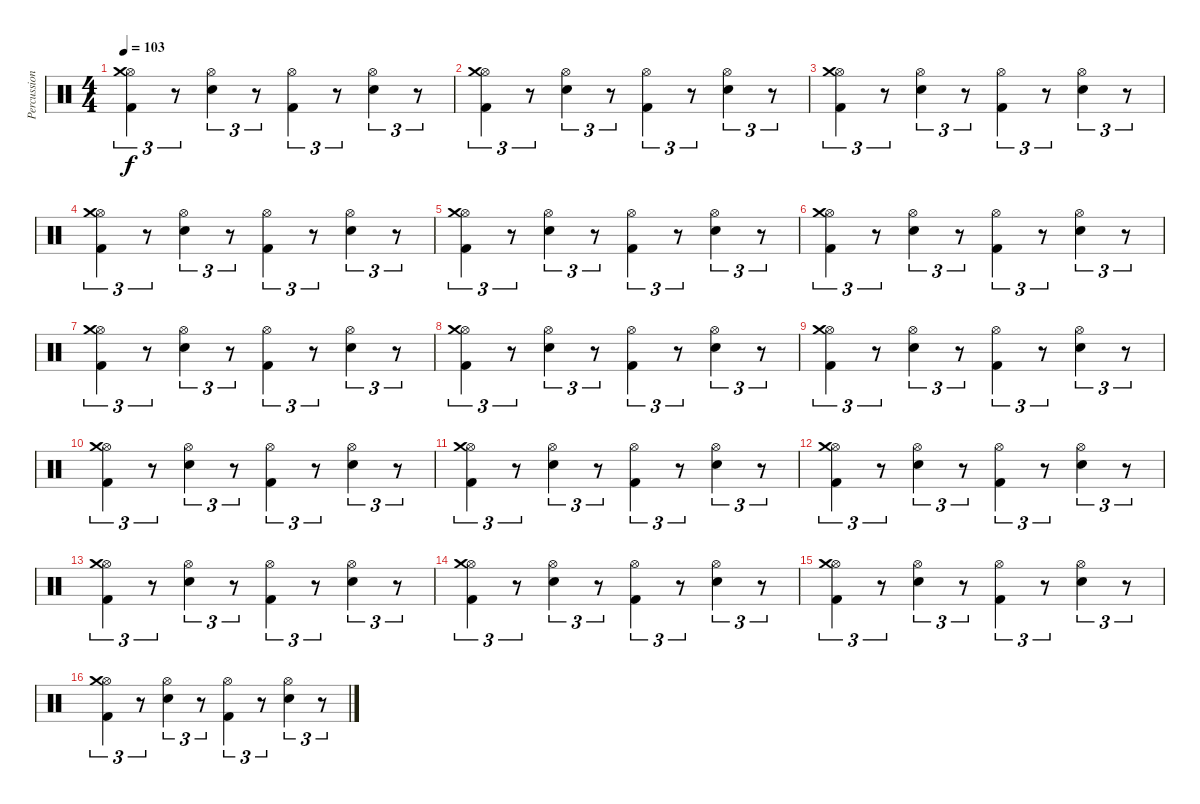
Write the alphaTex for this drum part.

\track ("Percussion" "Percussion") {instrument percussion}
\staff {score}
\articulation defaults
\ts (4 4)
\tempo 103
\clef neutral
\ks c
("Kick (hit) 2" "Hi-Hat (open)" "Crash medium (hit)").4{tu (3 2) dy f} r.8{tu (3 2)} ("Electric Snare (hit)" "Hi-Hat (open)").4{tu (3 2)} r.8{tu (3 2)} ("Kick (hit) 2" "Hi-Hat (open)").4{tu (3 2)} r.8{tu (3 2)} ("Electric Snare (hit)" "Hi-Hat (open)").4{tu (3 2)} r.8{tu (3 2)} |
("Kick (hit) 2" "Hi-Hat (open)" "Crash medium (hit)").4{tu (3 2)} r.8{tu (3 2)} ("Electric Snare (hit)" "Hi-Hat (open)").4{tu (3 2)} r.8{tu (3 2)} ("Kick (hit) 2" "Hi-Hat (open)").4{tu (3 2)} r.8{tu (3 2)} ("Electric Snare (hit)" "Hi-Hat (open)").4{tu (3 2)} r.8{tu (3 2)} |
("Kick (hit) 2" "Hi-Hat (open)" "Crash medium (hit)").4{tu (3 2)} r.8{tu (3 2)} ("Electric Snare (hit)" "Hi-Hat (open)").4{tu (3 2)} r.8{tu (3 2)} ("Kick (hit) 2" "Hi-Hat (open)").4{tu (3 2)} r.8{tu (3 2)} ("Electric Snare (hit)" "Hi-Hat (open)").4{tu (3 2)} r.8{tu (3 2)} |
("Kick (hit) 2" "Hi-Hat (open)" "Crash medium (hit)").4{tu (3 2)} r.8{tu (3 2)} ("Electric Snare (hit)" "Hi-Hat (open)").4{tu (3 2)} r.8{tu (3 2)} ("Kick (hit) 2" "Hi-Hat (open)").4{tu (3 2)} r.8{tu (3 2)} ("Electric Snare (hit)" "Hi-Hat (open)").4{tu (3 2)} r.8{tu (3 2)} |
("Kick (hit) 2" "Hi-Hat (open)" "Crash medium (hit)").4{tu (3 2)} r.8{tu (3 2)} ("Electric Snare (hit)" "Hi-Hat (open)").4{tu (3 2)} r.8{tu (3 2)} ("Kick (hit) 2" "Hi-Hat (open)").4{tu (3 2)} r.8{tu (3 2)} ("Electric Snare (hit)" "Hi-Hat (open)").4{tu (3 2)} r.8{tu (3 2)} |
("Kick (hit) 2" "Hi-Hat (open)" "Crash medium (hit)").4{tu (3 2)} r.8{tu (3 2)} ("Electric Snare (hit)" "Hi-Hat (open)").4{tu (3 2)} r.8{tu (3 2)} ("Kick (hit) 2" "Hi-Hat (open)").4{tu (3 2)} r.8{tu (3 2)} ("Electric Snare (hit)" "Hi-Hat (open)").4{tu (3 2)} r.8{tu (3 2)} |
("Kick (hit) 2" "Hi-Hat (open)" "Crash medium (hit)").4{tu (3 2)} r.8{tu (3 2)} ("Electric Snare (hit)" "Hi-Hat (open)").4{tu (3 2)} r.8{tu (3 2)} ("Kick (hit) 2" "Hi-Hat (open)").4{tu (3 2)} r.8{tu (3 2)} ("Electric Snare (hit)" "Hi-Hat (open)").4{tu (3 2)} r.8{tu (3 2)} |
("Kick (hit) 2" "Hi-Hat (open)" "Crash medium (hit)").4{tu (3 2)} r.8{tu (3 2)} ("Electric Snare (hit)" "Hi-Hat (open)").4{tu (3 2)} r.8{tu (3 2)} ("Kick (hit) 2" "Hi-Hat (open)").4{tu (3 2)} r.8{tu (3 2)} ("Electric Snare (hit)" "Hi-Hat (open)").4{tu (3 2)} r.8{tu (3 2)} |
("Kick (hit) 2" "Hi-Hat (open)" "Crash medium (hit)").4{tu (3 2)} r.8{tu (3 2)} ("Electric Snare (hit)" "Hi-Hat (open)").4{tu (3 2)} r.8{tu (3 2)} ("Kick (hit) 2" "Hi-Hat (open)").4{tu (3 2)} r.8{tu (3 2)} ("Electric Snare (hit)" "Hi-Hat (open)").4{tu (3 2)} r.8{tu (3 2)} |
("Kick (hit) 2" "Hi-Hat (open)" "Crash medium (hit)").4{tu (3 2)} r.8{tu (3 2)} ("Electric Snare (hit)" "Hi-Hat (open)").4{tu (3 2)} r.8{tu (3 2)} ("Kick (hit) 2" "Hi-Hat (open)").4{tu (3 2)} r.8{tu (3 2)} ("Electric Snare (hit)" "Hi-Hat (open)").4{tu (3 2)} r.8{tu (3 2)} |
("Kick (hit) 2" "Hi-Hat (open)" "Crash medium (hit)").4{tu (3 2)} r.8{tu (3 2)} ("Electric Snare (hit)" "Hi-Hat (open)").4{tu (3 2)} r.8{tu (3 2)} ("Kick (hit) 2" "Hi-Hat (open)").4{tu (3 2)} r.8{tu (3 2)} ("Electric Snare (hit)" "Hi-Hat (open)").4{tu (3 2)} r.8{tu (3 2)} |
("Kick (hit) 2" "Hi-Hat (open)" "Crash medium (hit)").4{tu (3 2)} r.8{tu (3 2)} ("Electric Snare (hit)" "Hi-Hat (open)").4{tu (3 2)} r.8{tu (3 2)} ("Kick (hit) 2" "Hi-Hat (open)").4{tu (3 2)} r.8{tu (3 2)} ("Electric Snare (hit)" "Hi-Hat (open)").4{tu (3 2)} r.8{tu (3 2)} |
("Kick (hit) 2" "Hi-Hat (open)" "Crash medium (hit)").4{tu (3 2)} r.8{tu (3 2)} ("Electric Snare (hit)" "Hi-Hat (open)").4{tu (3 2)} r.8{tu (3 2)} ("Kick (hit) 2" "Hi-Hat (open)").4{tu (3 2)} r.8{tu (3 2)} ("Electric Snare (hit)" "Hi-Hat (open)").4{tu (3 2)} r.8{tu (3 2)} |
("Kick (hit) 2" "Hi-Hat (open)" "Crash medium (hit)").4{tu (3 2)} r.8{tu (3 2)} ("Electric Snare (hit)" "Hi-Hat (open)").4{tu (3 2)} r.8{tu (3 2)} ("Kick (hit) 2" "Hi-Hat (open)").4{tu (3 2)} r.8{tu (3 2)} ("Electric Snare (hit)" "Hi-Hat (open)").4{tu (3 2)} r.8{tu (3 2)} |
("Kick (hit) 2" "Hi-Hat (open)" "Crash medium (hit)").4{tu (3 2)} r.8{tu (3 2)} ("Electric Snare (hit)" "Hi-Hat (open)").4{tu (3 2)} r.8{tu (3 2)} ("Kick (hit) 2" "Hi-Hat (open)").4{tu (3 2)} r.8{tu (3 2)} ("Electric Snare (hit)" "Hi-Hat (open)").4{tu (3 2)} r.8{tu (3 2)} |
("Kick (hit) 2" "Hi-Hat (open)" "Crash medium (hit)").4{tu (3 2)} r.8{tu (3 2)} ("Electric Snare (hit)" "Hi-Hat (open)").4{tu (3 2)} r.8{tu (3 2)} ("Kick (hit) 2" "Hi-Hat (open)").4{tu (3 2)} r.8{tu (3 2)} ("Electric Snare (hit)" "Hi-Hat (open)").4{tu (3 2)} r.8{tu (3 2)}
